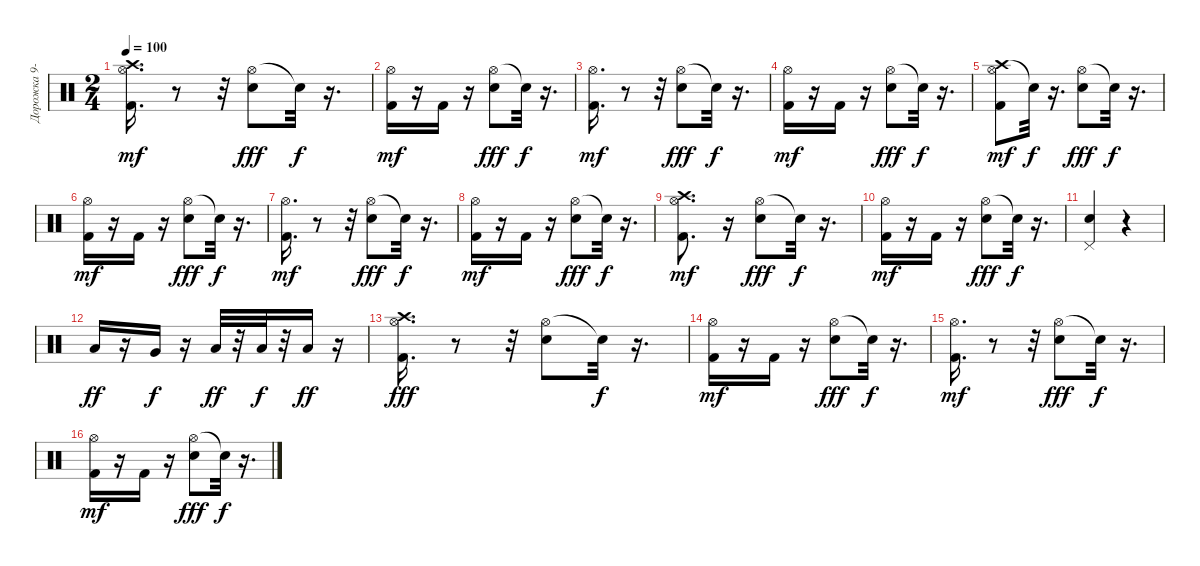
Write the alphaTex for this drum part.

\track ("Дорожка 9-10" "Дорожка 9-") {instrument percussion}
\staff {score}
\articulation defaults
\ts (2 4)
\tempo 100
\clef neutral
\ks c
("Crash high (hit)" "Hi-Hat (open)" "Kick (hit) 2").16{d dy mf} r.8 r.32 ("Hi-Hat (open)" "Snare (hit) 2").8{dy fff} "Snare (hit)"{t}.32{dy f} r.16{d} |
("Hi-Hat (open)" "Kick (hit) 2").16{dy mf} r.16 "Kick (hit) 2".16 r.16 ("Hi-Hat (open)" "Snare (hit) 2").8{dy fff} "Snare (hit)"{t}.32{dy f} r.16{d} |
("Hi-Hat (open)" "Kick (hit) 2").16{d dy mf} r.8 r.32 ("Hi-Hat (open)" "Snare (hit) 2").8{dy fff} "Snare (hit)"{t}.32{dy f} r.16{d} |
("Hi-Hat (open)" "Kick (hit) 2").16{dy mf} r.16 "Kick (hit) 2".16 r.16 ("Hi-Hat (open)" "Snare (hit) 2").8{dy fff} "Snare (hit)"{t}.32{dy f} r.16{d} |
("Crash high (hit)" "Hi-Hat (open)" "Kick (hit) 2").8{dy mf} "Snare (hit)"{t}.32{dy f} r.16{d} ("Hi-Hat (open)" "Snare (hit) 2").8{dy fff} "Snare (hit)"{t}.32{dy f} r.16{d} |
("Hi-Hat (open)" "Kick (hit) 2").16{dy mf} r.16 "Kick (hit) 2".16 r.16 ("Hi-Hat (open)" "Snare (hit) 2").8{dy fff} "Snare (hit)"{t}.32{dy f} r.16{d} |
("Hi-Hat (open)" "Kick (hit) 2").16{d dy mf} r.8 r.32 ("Hi-Hat (open)" "Snare (hit) 2").8{dy fff} "Snare (hit)"{t}.32{dy f} r.16{d} |
("Hi-Hat (open)" "Kick (hit) 2").16{dy mf} r.16 "Kick (hit) 2".16 r.16 ("Hi-Hat (open)" "Snare (hit) 2").8{dy fff} "Snare (hit)"{t}.32{dy f} r.16{d} |
("Crash high (hit)" "Hi-Hat (open)" "Kick (hit) 2").8{d dy mf} r.16 ("Hi-Hat (open)" "Snare (hit) 2").8{dy fff} "Snare (hit)"{t}.32{dy f} r.16{d} |
("Hi-Hat (open)" "Kick (hit) 2").16{dy mf} r.16 "Kick (hit) 2".16 r.16 ("Hi-Hat (open)" "Snare (hit) 2").8{dy fff} "Snare (hit)"{t}.32{dy f} r.16{d} |
("Pedal Hi-Hat (hit)" "Snare (hit) 2").4 r.4 |
"Low Floor Tom (hit)".16{dy ff} r.16 "Very Low Tom (hit)".16{dy f} r.16 "Low Tom (hit)".32{dy ff} r.32 "Low Tom (hit)".32{dy f} r.32 "Low Tom (hit)".16{dy ff} r.16 |
("Hi-Hat (open)" "Kick (hit) 2" "Crash high (hit)").16{d dy fff} r.8 r.32 ("Hi-Hat (open)" "Snare (hit) 2").8 "Snare (hit)"{t}.32{dy f} r.16{d} |
("Hi-Hat (open)" "Kick (hit) 2").16{dy mf} r.16 "Kick (hit) 2".16 r.16 ("Hi-Hat (open)" "Snare (hit) 2").8{dy fff} "Snare (hit)"{t}.32{dy f} r.16{d} |
("Hi-Hat (open)" "Kick (hit) 2").16{d dy mf} r.8 r.32 ("Hi-Hat (open)" "Snare (hit) 2").8{dy fff} "Snare (hit)"{t}.32{dy f} r.16{d} |
("Hi-Hat (open)" "Kick (hit) 2").16{dy mf} r.16 "Kick (hit) 2".16 r.16 ("Hi-Hat (open)" "Snare (hit) 2").8{dy fff} "Snare (hit)"{t}.32{dy f} r.16{d}
